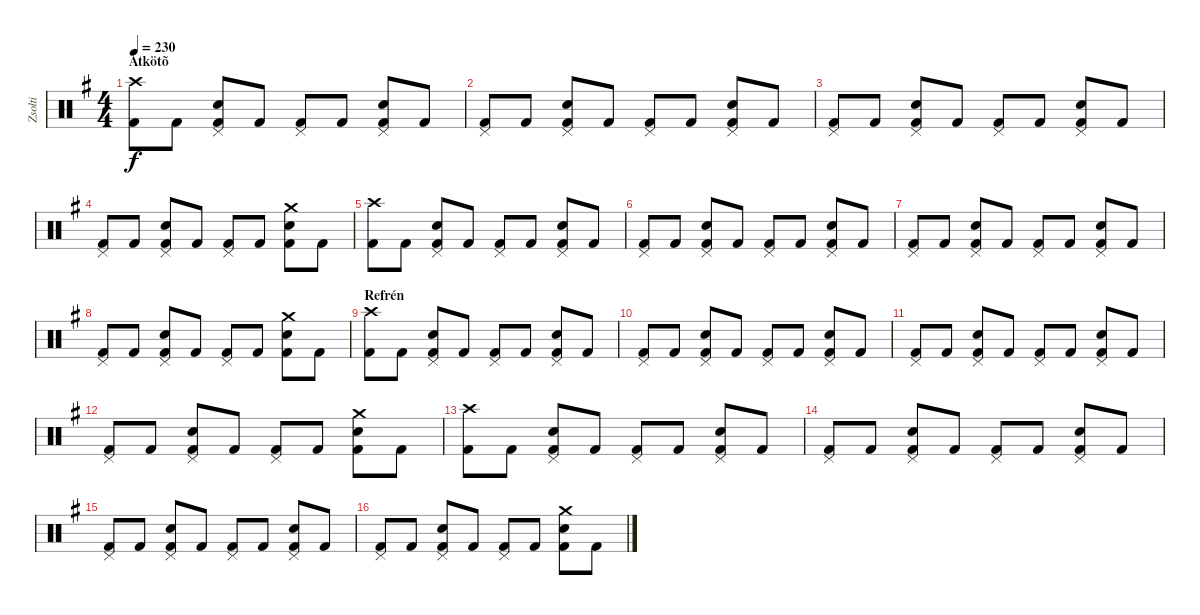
\track ("Zsolti" "Zsolti") {instrument percussion}
\staff {score}
\articulation defaults
\ts (4 4)
\section ("" "Átkötõ")
\tempo 230
\clef neutral
\ks eminor
("Crash high (hit)" "Kick (hit) 2").8{dy f} "Kick (hit) 2".8 ("Pedal Hi-Hat (hit)" "Snare (hit) 2" "Kick (hit) 2").8 "Kick (hit) 2".8 ("Pedal Hi-Hat (hit)" "Kick (hit) 2").8 "Kick (hit) 2".8 ("Pedal Hi-Hat (hit)" "Snare (hit) 2" "Kick (hit) 2").8 "Kick (hit) 2".8 |
("Pedal Hi-Hat (hit)" "Kick (hit) 2").8 "Kick (hit) 2".8 ("Pedal Hi-Hat (hit)" "Snare (hit) 2" "Kick (hit) 2").8 "Kick (hit) 2".8 ("Pedal Hi-Hat (hit)" "Kick (hit) 2").8 "Kick (hit) 2".8 ("Pedal Hi-Hat (hit)" "Snare (hit) 2" "Kick (hit) 2").8 "Kick (hit) 2".8 |
("Pedal Hi-Hat (hit)" "Kick (hit) 2").8 "Kick (hit) 2".8 ("Pedal Hi-Hat (hit)" "Snare (hit) 2" "Kick (hit) 2").8 "Kick (hit) 2".8 ("Pedal Hi-Hat (hit)" "Kick (hit) 2").8 "Kick (hit) 2".8 ("Pedal Hi-Hat (hit)" "Snare (hit) 2" "Kick (hit) 2").8 "Kick (hit) 2".8 |
("Pedal Hi-Hat (hit)" "Kick (hit) 2").8 "Kick (hit) 2".8 ("Pedal Hi-Hat (hit)" "Snare (hit) 2" "Kick (hit) 2").8 "Kick (hit) 2".8 ("Pedal Hi-Hat (hit)" "Kick (hit) 2").8 "Kick (hit) 2".8 ("Crash medium (hit)" "Snare (hit) 2" "Kick (hit) 2").8 "Kick (hit) 2".8 |
("Crash high (hit)" "Kick (hit) 2").8 "Kick (hit) 2".8 ("Pedal Hi-Hat (hit)" "Snare (hit) 2" "Kick (hit) 2").8 "Kick (hit) 2".8 ("Pedal Hi-Hat (hit)" "Kick (hit) 2").8 "Kick (hit) 2".8 ("Pedal Hi-Hat (hit)" "Snare (hit) 2" "Kick (hit) 2").8 "Kick (hit) 2".8 |
("Pedal Hi-Hat (hit)" "Kick (hit) 2").8 "Kick (hit) 2".8 ("Pedal Hi-Hat (hit)" "Snare (hit) 2" "Kick (hit) 2").8 "Kick (hit) 2".8 ("Pedal Hi-Hat (hit)" "Kick (hit) 2").8 "Kick (hit) 2".8 ("Pedal Hi-Hat (hit)" "Snare (hit) 2" "Kick (hit) 2").8 "Kick (hit) 2".8 |
("Pedal Hi-Hat (hit)" "Kick (hit) 2").8 "Kick (hit) 2".8 ("Pedal Hi-Hat (hit)" "Snare (hit) 2" "Kick (hit) 2").8 "Kick (hit) 2".8 ("Pedal Hi-Hat (hit)" "Kick (hit) 2").8 "Kick (hit) 2".8 ("Pedal Hi-Hat (hit)" "Snare (hit) 2" "Kick (hit) 2").8 "Kick (hit) 2".8 |
("Pedal Hi-Hat (hit)" "Kick (hit) 2").8 "Kick (hit) 2".8 ("Pedal Hi-Hat (hit)" "Snare (hit) 2" "Kick (hit) 2").8 "Kick (hit) 2".8 ("Pedal Hi-Hat (hit)" "Kick (hit) 2").8 "Kick (hit) 2".8 ("Crash medium (hit)" "Snare (hit) 2" "Kick (hit) 2").8 "Kick (hit) 2".8 |
\section ("" "Refrén")
("Crash high (hit)" "Kick (hit) 2").8 "Kick (hit) 2".8 ("Pedal Hi-Hat (hit)" "Snare (hit) 2" "Kick (hit) 2").8 "Kick (hit) 2".8 ("Pedal Hi-Hat (hit)" "Kick (hit) 2").8 "Kick (hit) 2".8 ("Pedal Hi-Hat (hit)" "Snare (hit) 2" "Kick (hit) 2").8 "Kick (hit) 2".8 |
("Pedal Hi-Hat (hit)" "Kick (hit) 2").8 "Kick (hit) 2".8 ("Pedal Hi-Hat (hit)" "Snare (hit) 2" "Kick (hit) 2").8 "Kick (hit) 2".8 ("Pedal Hi-Hat (hit)" "Kick (hit) 2").8 "Kick (hit) 2".8 ("Pedal Hi-Hat (hit)" "Snare (hit) 2" "Kick (hit) 2").8 "Kick (hit) 2".8 |
("Pedal Hi-Hat (hit)" "Kick (hit) 2").8 "Kick (hit) 2".8 ("Pedal Hi-Hat (hit)" "Snare (hit) 2" "Kick (hit) 2").8 "Kick (hit) 2".8 ("Pedal Hi-Hat (hit)" "Kick (hit) 2").8 "Kick (hit) 2".8 ("Pedal Hi-Hat (hit)" "Snare (hit) 2" "Kick (hit) 2").8 "Kick (hit) 2".8 |
("Pedal Hi-Hat (hit)" "Kick (hit) 2").8 "Kick (hit) 2".8 ("Pedal Hi-Hat (hit)" "Snare (hit) 2" "Kick (hit) 2").8 "Kick (hit) 2".8 ("Pedal Hi-Hat (hit)" "Kick (hit) 2").8 "Kick (hit) 2".8 ("Crash medium (hit)" "Snare (hit) 2" "Kick (hit) 2").8 "Kick (hit) 2".8 |
("Crash high (hit)" "Kick (hit) 2").8 "Kick (hit) 2".8 ("Pedal Hi-Hat (hit)" "Snare (hit) 2" "Kick (hit) 2").8 "Kick (hit) 2".8 ("Pedal Hi-Hat (hit)" "Kick (hit) 2").8 "Kick (hit) 2".8 ("Pedal Hi-Hat (hit)" "Snare (hit) 2" "Kick (hit) 2").8 "Kick (hit) 2".8 |
("Pedal Hi-Hat (hit)" "Kick (hit) 2").8 "Kick (hit) 2".8 ("Pedal Hi-Hat (hit)" "Snare (hit) 2" "Kick (hit) 2").8 "Kick (hit) 2".8 ("Pedal Hi-Hat (hit)" "Kick (hit) 2").8 "Kick (hit) 2".8 ("Pedal Hi-Hat (hit)" "Snare (hit) 2" "Kick (hit) 2").8 "Kick (hit) 2".8 |
("Pedal Hi-Hat (hit)" "Kick (hit) 2").8 "Kick (hit) 2".8 ("Pedal Hi-Hat (hit)" "Snare (hit) 2" "Kick (hit) 2").8 "Kick (hit) 2".8 ("Pedal Hi-Hat (hit)" "Kick (hit) 2").8 "Kick (hit) 2".8 ("Pedal Hi-Hat (hit)" "Snare (hit) 2" "Kick (hit) 2").8 "Kick (hit) 2".8 |
("Pedal Hi-Hat (hit)" "Kick (hit) 2").8 "Kick (hit) 2".8 ("Pedal Hi-Hat (hit)" "Snare (hit) 2" "Kick (hit) 2").8 "Kick (hit) 2".8 ("Pedal Hi-Hat (hit)" "Kick (hit) 2").8 "Kick (hit) 2".8 ("Crash medium (hit)" "Snare (hit) 2" "Kick (hit) 2").8 "Kick (hit) 2".8
